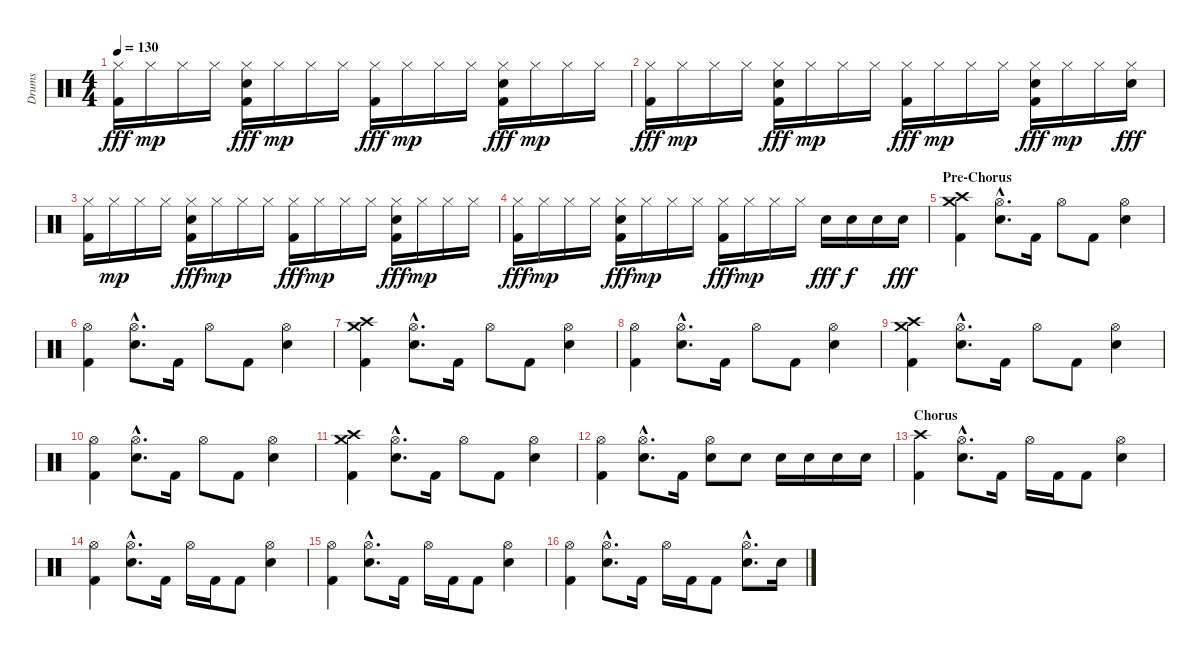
\track ("Drums" "Drums") {instrument percussion}
\staff {score}
\articulation defaults
\ts (4 4)
\tempo 130
\clef neutral
\ks c
("Hi-Hat (closed)" "Kick (hit) 2").16{dy fff} "Hi-Hat (closed)".16{dy mp} "Hi-Hat (closed)".16 "Hi-Hat (closed)".16 ("Hi-Hat (closed)" "Electric Snare (hit)" "Kick (hit) 2").16{dy fff} "Hi-Hat (closed)".16{dy mp} "Hi-Hat (closed)".16 "Hi-Hat (closed)".16 ("Hi-Hat (closed)" "Kick (hit) 2").16{dy fff} "Hi-Hat (closed)".16{dy mp} "Hi-Hat (closed)".16 "Hi-Hat (closed)".16 ("Hi-Hat (closed)" "Electric Snare (hit)" "Kick (hit) 2").16{dy fff} "Hi-Hat (closed)".16{dy mp} "Hi-Hat (closed)".16 "Hi-Hat (closed)".16 |
("Hi-Hat (closed)" "Kick (hit) 2").16{dy fff} "Hi-Hat (closed)".16{dy mp} "Hi-Hat (closed)".16 "Hi-Hat (closed)".16 ("Hi-Hat (closed)" "Electric Snare (hit)" "Kick (hit) 2").16{dy fff} "Hi-Hat (closed)".16{dy mp} "Hi-Hat (closed)".16 "Hi-Hat (closed)".16 ("Hi-Hat (closed)" "Kick (hit) 2").16{dy fff} "Hi-Hat (closed)".16{dy mp} "Hi-Hat (closed)".16 "Hi-Hat (closed)".16 ("Hi-Hat (closed)" "Electric Snare (hit)" "Kick (hit) 2").16{dy fff} "Hi-Hat (closed)".16{dy mp} "Hi-Hat (closed)".16 ("Hi-Hat (closed)" "Electric Snare (hit)").16{dy fff} |
("Hi-Hat (closed)" "Kick (hit) 2").16 "Hi-Hat (closed)".16{dy mp} "Hi-Hat (closed)".16 "Hi-Hat (closed)".16 ("Hi-Hat (closed)" "Electric Snare (hit)" "Kick (hit) 2").16{dy fff} "Hi-Hat (closed)".16{dy mp} "Hi-Hat (closed)".16 "Hi-Hat (closed)".16 ("Hi-Hat (closed)" "Kick (hit) 2").16{dy fff} "Hi-Hat (closed)".16{dy mp} "Hi-Hat (closed)".16 "Hi-Hat (closed)".16 ("Hi-Hat (closed)" "Electric Snare (hit)" "Kick (hit) 2").16{dy fff} "Hi-Hat (closed)".16{dy mp} "Hi-Hat (closed)".16 "Hi-Hat (closed)".16 |
("Hi-Hat (closed)" "Kick (hit) 2").16{dy fff} "Hi-Hat (closed)".16{dy mp} "Hi-Hat (closed)".16 "Hi-Hat (closed)".16 ("Hi-Hat (closed)" "Electric Snare (hit)" "Kick (hit) 2").16{dy fff} "Hi-Hat (closed)".16{dy mp} "Hi-Hat (closed)".16 "Hi-Hat (closed)".16 ("Hi-Hat (closed)" "Kick (hit) 2").16{dy fff} "Hi-Hat (closed)".16{dy mp} "Hi-Hat (closed)".16 "Hi-Hat (closed)".16 "Electric Snare (hit)".16{dy fff} "Electric Snare (hit)".16{dy f} "Electric Snare (hit)".16 "Electric Snare (hit)".16{dy fff} |
\section ("" "Pre-Chorus")
("Crash high (hit)" "Crash medium (hit)" "Kick (hit) 2").4 ("Hi-Hat (open)"{hac} "Electric Snare (hit)"{hac}).8{d} "Kick (hit) 2".16 "Hi-Hat (open)".8 "Kick (hit) 2".8 ("Hi-Hat (open)" "Electric Snare (hit)").4 |
("Hi-Hat (open)" "Kick (hit) 2").4 ("Hi-Hat (open)"{hac} "Electric Snare (hit)"{hac}).8{d} "Kick (hit) 2".16 "Hi-Hat (open)".8 "Kick (hit) 2".8 ("Hi-Hat (open)" "Electric Snare (hit)").4 |
("Crash high (hit)" "Crash medium (hit)" "Kick (hit) 2").4 ("Hi-Hat (open)"{hac} "Electric Snare (hit)"{hac}).8{d} "Kick (hit) 2".16 "Hi-Hat (open)".8 "Kick (hit) 2".8 ("Hi-Hat (open)" "Electric Snare (hit)").4 |
("Hi-Hat (open)" "Kick (hit) 2").4 ("Hi-Hat (open)"{hac} "Electric Snare (hit)"{hac}).8{d} "Kick (hit) 2".16 "Hi-Hat (open)".8 "Kick (hit) 2".8 ("Hi-Hat (open)" "Electric Snare (hit)").4 |
("Crash high (hit)" "Crash medium (hit)" "Kick (hit) 2").4 ("Hi-Hat (open)"{hac} "Electric Snare (hit)"{hac}).8{d} "Kick (hit) 2".16 "Hi-Hat (open)".8 "Kick (hit) 2".8 ("Hi-Hat (open)" "Electric Snare (hit)").4 |
("Hi-Hat (open)" "Kick (hit) 2").4 ("Hi-Hat (open)"{hac} "Electric Snare (hit)"{hac}).8{d} "Kick (hit) 2".16 "Hi-Hat (open)".8 "Kick (hit) 2".8 ("Hi-Hat (open)" "Electric Snare (hit)").4 |
("Crash high (hit)" "Crash medium (hit)" "Kick (hit) 2").4 ("Hi-Hat (open)"{hac} "Electric Snare (hit)"{hac}).8{d} "Kick (hit) 2".16 "Hi-Hat (open)".8 "Kick (hit) 2".8 ("Hi-Hat (open)" "Electric Snare (hit)").4 |
("Hi-Hat (open)" "Kick (hit) 2").4 ("Hi-Hat (open)"{hac} "Electric Snare (hit)"{hac}).8{d} "Kick (hit) 2".16 ("Hi-Hat (open)" "Electric Snare (hit)").8 "Electric Snare (hit)".8 "Electric Snare (hit)".16 "Electric Snare (hit)".16 "Electric Snare (hit)".16 "Electric Snare (hit)".16 |
\section ("" "Chorus")
("Crash high (hit)" "Kick (hit) 2").4 ("Hi-Hat (open)"{hac} "Electric Snare (hit)"{hac}).8{d} "Kick (hit) 2".16 "Hi-Hat (open)".16 "Kick (hit) 2".16 "Kick (hit) 2".8 ("Hi-Hat (open)" "Electric Snare (hit)").4 |
("Hi-Hat (open)" "Kick (hit) 2").4 ("Hi-Hat (open)"{hac} "Electric Snare (hit)"{hac}).8{d} "Kick (hit) 2".16 "Hi-Hat (open)".16 "Kick (hit) 2".16 "Kick (hit) 2".8 ("Hi-Hat (open)" "Electric Snare (hit)").4 |
("Hi-Hat (open)" "Kick (hit) 2").4 ("Hi-Hat (open)"{hac} "Electric Snare (hit)"{hac}).8{d} "Kick (hit) 2".16 "Hi-Hat (open)".16 "Kick (hit) 2".16 "Kick (hit) 2".8 ("Hi-Hat (open)" "Electric Snare (hit)").4 |
("Hi-Hat (open)" "Kick (hit) 2").4 ("Hi-Hat (open)"{hac} "Electric Snare (hit)"{hac}).8{d} "Kick (hit) 2".16 "Hi-Hat (open)".16 "Kick (hit) 2".16 "Kick (hit) 2".8 ("Hi-Hat (open)"{hac} "Electric Snare (hit)"{hac}).8{d} "Electric Snare (hit)".16
